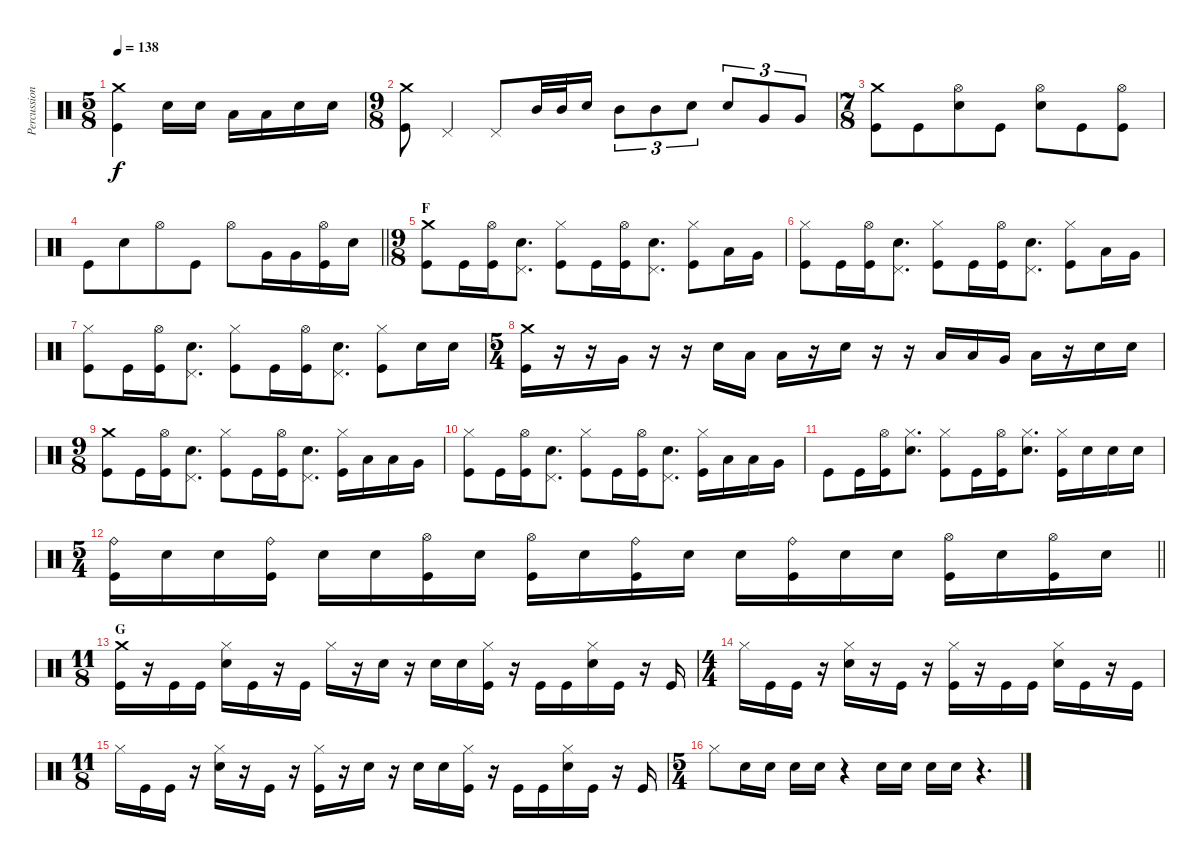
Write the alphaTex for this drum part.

\track ("Percussion" "Percussion") {instrument percussion}
\staff {score}
\articulation defaults
\ts (5 8)
\tempo 138
\clef neutral
\ks c
("Kick (hit)" "Crash medium (hit)").4{dy f} "Snare (hit) 2".16 "Snare (hit) 2".16 "Low Tom (hit)".16 "Low Tom (hit)".16 "Snare (hit) 2".16 "Snare (hit) 2".16 |
\ts (9 8)
("Kick (hit)" "Crash medium (hit)").8 "Pedal Hi-Hat (hit)".4 "Pedal Hi-Hat (hit)".8 "Mid Tom (hit)".32 "Mid Tom (hit)".32 "Snare (hit) 2".16 "Mid Tom (hit)".8{tu (3 2)} "Mid Tom (hit)".8{tu (3 2)} "Snare (hit) 2".8{tu (3 2)} "Snare (hit) 2".8{tu (3 2)} "Very Low Tom (hit)".8{tu (3 2)} "Very Low Tom (hit)".8{tu (3 2)} |
\ts (7 8)
("Kick (hit)" "Crash medium (hit)").8 "Kick (hit)".8 ("Snare (hit) 2" "Hi-Hat (open)").8 "Kick (hit)".8 ("Snare (hit) 2" "Hi-Hat (open)").8 "Kick (hit)".8 ("Kick (hit)" "Hi-Hat (open)").8 |
\barLineRight lightlight "Kick (hit)".8 "Snare (hit) 2".8 "Hi-Hat (open)".8 "Kick (hit)".8 "Hi-Hat (open)".8 "Very Low Tom (hit)".16 "Very Low Tom (hit)".16
("Kick (hit)" "Hi-Hat (open)").16 "Snare (hit) 2".16 |
\ts (9 8)
\section ("" "F")
("Kick (hit)" "Crash medium (hit)").8 "Kick (hit)".16 ("Kick (hit)" "Hi-Hat (open)").16 ("Snare (hit) 2" "Pedal Hi-Hat (hit)").8{d} ("Kick (hit)" "Hi-Hat (closed)").8 "Kick (hit)".16 ("Kick (hit)" "Hi-Hat (open)").16 ("Snare (hit) 2" "Pedal Hi-Hat (hit)").8{d} ("Kick (hit)" "Hi-Hat (closed)").8 "Low Tom (hit)".16 "Very Low Tom (hit)".16 |
("Kick (hit)" "Hi-Hat (closed)").8 "Kick (hit)".16 ("Kick (hit)" "Hi-Hat (open)").16 ("Snare (hit) 2" "Pedal Hi-Hat (hit)").8{d} ("Kick (hit)" "Hi-Hat (closed)").8 "Kick (hit)".16 ("Kick (hit)" "Hi-Hat (open)").16 ("Snare (hit) 2" "Pedal Hi-Hat (hit)").8{d} ("Kick (hit)" "Hi-Hat (closed)").8 "Low Tom (hit)".16 "Very Low Tom (hit)".16 |
("Kick (hit)" "Hi-Hat (closed)").8 "Kick (hit)".16 ("Kick (hit)" "Hi-Hat (open)").16 ("Snare (hit) 2" "Pedal Hi-Hat (hit)").8{d} ("Kick (hit)" "Hi-Hat (closed)").8 "Kick (hit)".16 ("Kick (hit)" "Hi-Hat (open)").16 ("Snare (hit) 2" "Pedal Hi-Hat (hit)").8{d} ("Kick (hit)" "Hi-Hat (closed)").8 "Snare (hit) 2".16 "Snare (hit) 2".16 |
\ts (5 4)
("Kick (hit)" "Crash medium (hit)").16 r.16 r.16 "Very Low Tom (hit)".16 r.16 r.16 "Snare (hit) 2".16 "Low Tom (hit)".16 "Low Tom (hit)".16 r.16 "Snare (hit) 2".16 r.16 r.16 "Low Tom (hit)".16 "Low Tom (hit)".16 "Very Low Tom (hit)".16 "Low Floor Tom (hit)".16 r.16 "Snare (hit) 2".16 "Snare (hit) 2".16 |
\ts (9 8)
("Kick (hit)" "Crash medium (hit)").8 "Kick (hit)".16 ("Kick (hit)" "Hi-Hat (open)").16 ("Snare (hit) 2" "Pedal Hi-Hat (hit)").8{d} ("Kick (hit)" "Hi-Hat (closed)").8 "Kick (hit)".16 ("Kick (hit)" "Hi-Hat (open)").16 ("Snare (hit) 2" "Pedal Hi-Hat (hit)").8{d} ("Kick (hit)" "Hi-Hat (closed)").16 "Low Tom (hit)".16 "Low Tom (hit)".16 "Very Low Tom (hit)".16 |
("Kick (hit)" "Hi-Hat (closed)").8 "Kick (hit)".16 ("Kick (hit)" "Hi-Hat (open)").16 ("Snare (hit) 2" "Pedal Hi-Hat (hit)").8{d} ("Kick (hit)" "Hi-Hat (closed)").8 "Kick (hit)".16 ("Kick (hit)" "Hi-Hat (open)").16 ("Snare (hit) 2" "Pedal Hi-Hat (hit)").8{d} ("Kick (hit)" "Hi-Hat (closed)").16 "Low Tom (hit)".16 "Low Tom (hit)".16 "Very Low Tom (hit)".16 |
"Kick (hit)".8 "Kick (hit)".16 ("Kick (hit)" "Hi-Hat (open)").16 ("Snare (hit) 2" "Hi-Hat (closed)").8{d} ("Kick (hit)" "Hi-Hat (closed)").8 "Kick (hit)".16 ("Kick (hit)" "Hi-Hat (open)").16 ("Snare (hit) 2" "Hi-Hat (closed)").8{d} ("Kick (hit)" "Hi-Hat (closed)").16 "Snare (hit) 2".16 "Snare (hit) 2".16 "Snare (hit) 2".16 |
\ts (5 4)
\barLineRight lightlight
("Kick (hit)" "Ride (bell)").16 "Snare (hit) 2".16 "Snare (hit) 2".16 ("Kick (hit)" "Ride (bell)").16 "Snare (hit) 2".16 "Snare (hit) 2".16 ("Kick (hit)" "Hi-Hat (open)").16 "Snare (hit) 2".16 ("Kick (hit)" "Hi-Hat (open)").16 "Snare (hit) 2".16 ("Kick (hit)" "Ride (bell)").16 "Snare (hit) 2".16 "Snare (hit) 2".16 ("Kick (hit)" "Ride (bell)").16 "Snare (hit) 2".16 "Snare (hit) 2".16 ("Kick (hit)" "Hi-Hat (open)").16 "Snare (hit) 2".16 ("Kick (hit)" "Hi-Hat (open)").16 "Snare (hit) 2".16 |
\ts (11 8)
\section ("" "G")
("Kick (hit)" "Crash medium (hit)").16 r.16 "Kick (hit)".16 "Kick (hit)".16 ("Snare (hit) 2" "Hi-Hat (closed)").16 "Kick (hit)".16 r.16 "Kick (hit)".16 "Hi-Hat (closed)".16 r.16 "Snare (hit) 2".16 r.16 "Snare (hit) 2".16 "Snare (hit) 2".16 ("Kick (hit)" "Hi-Hat (closed)").16 r.16 "Kick (hit)".16 "Kick (hit)".16 ("Snare (hit) 2" "Hi-Hat (closed)").16 "Kick (hit)".16 r.16 "Kick (hit)".16 |
\ts (4 4)
"Hi-Hat (closed)".16 "Kick (hit)".16 "Kick (hit)".16 r.16 ("Snare (hit) 2" "Hi-Hat (closed)").16 r.16 "Kick (hit)".16 r.16 ("Kick (hit)" "Hi-Hat (closed)").16 r.16 "Kick (hit)".16 "Kick (hit)".16 ("Snare (hit) 2" "Hi-Hat (closed)").16 "Kick (hit)".16 r.16 "Kick (hit)".16 |
\ts (11 8)
"Hi-Hat (closed)".16 "Kick (hit)".16 "Kick (hit)".16 r.16 ("Snare (hit) 2" "Hi-Hat (closed)").16 r.16 "Kick (hit)".16 r.16 ("Kick (hit)" "Hi-Hat (closed)").16 r.16 "Snare (hit) 2".16 r.16 "Snare (hit) 2".16 "Snare (hit) 2".16 ("Kick (hit)" "Hi-Hat (closed)").16 r.16 "Kick (hit)".16 "Kick (hit)".16 ("Snare (hit) 2" "Hi-Hat (closed)").16 "Kick (hit)".16 r.16 "Kick (hit)".16 |
\ts (5 4)
"Hi-Hat (closed)".8 "Snare (hit) 2".16 "Snare (hit) 2".16 "Snare (hit) 2".16 "Snare (hit) 2".16 r.4 "Snare (hit) 2".16 "Snare (hit) 2".16 "Snare (hit) 2".16 "Snare (hit) 2".16 r.4{d}
